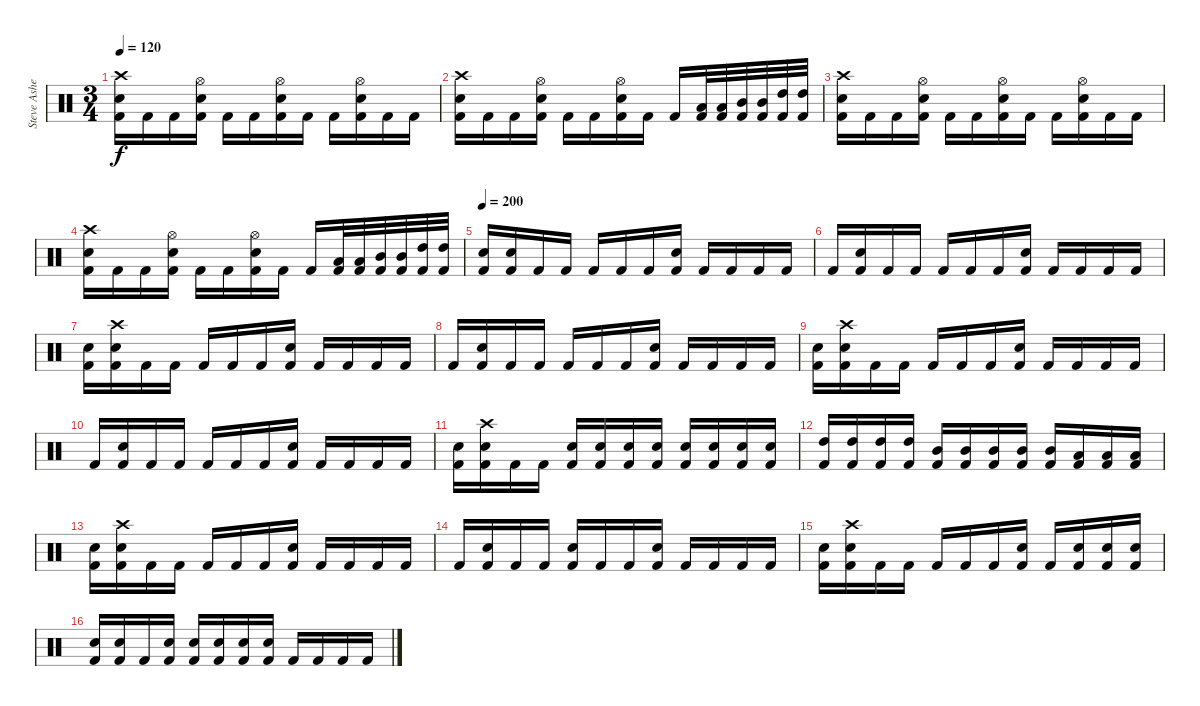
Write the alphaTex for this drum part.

\track ("Steve Asheim" "Steve Ashe") {instrument percussion}
\staff {score}
\articulation defaults
\ts (3 4)
\tempo 120
\clef neutral
\ks c
("Crash high (hit)" "Electric Snare (hit)" "Kick (hit) 2").16{dy f} "Kick (hit) 2".16 "Kick (hit) 2".16 ("Hi-Hat (open)" "Electric Snare (hit)" "Kick (hit) 2").16 "Kick (hit) 2".16 "Kick (hit) 2".16 ("Hi-Hat (open)" "Electric Snare (hit)" "Kick (hit) 2").16 "Kick (hit) 2".16 "Kick (hit) 2".16 ("Hi-Hat (open)" "Electric Snare (hit)" "Kick (hit) 2").16 "Kick (hit) 2".16 "Kick (hit) 2".16 |
("Crash high (hit)" "Electric Snare (hit)" "Kick (hit) 2").16 "Kick (hit) 2".16 "Kick (hit) 2".16 ("Hi-Hat (open)" "Electric Snare (hit)" "Kick (hit) 2").16 "Kick (hit) 2".16 "Kick (hit) 2".16 ("Hi-Hat (open)" "Electric Snare (hit)" "Kick (hit) 2").16 "Kick (hit) 2".16 "Kick (hit) 2".16 ("Low Floor Tom (hit)" "Kick (hit) 2").32 ("Low Tom (hit)" "Kick (hit) 2").32 ("Mid Tom (hit)" "Kick (hit) 2").32 ("Mid Tom (hit)" "Kick (hit) 2").32 ("High Tom (hit)" "Kick (hit) 2").32 ("High Tom (hit)" "Kick (hit) 2").32 |
("Crash high (hit)" "Electric Snare (hit)" "Kick (hit) 2").16 "Kick (hit) 2".16 "Kick (hit) 2".16 ("Hi-Hat (open)" "Electric Snare (hit)" "Kick (hit) 2").16 "Kick (hit) 2".16 "Kick (hit) 2".16 ("Hi-Hat (open)" "Electric Snare (hit)" "Kick (hit) 2").16 "Kick (hit) 2".16 "Kick (hit) 2".16 ("Hi-Hat (open)" "Electric Snare (hit)" "Kick (hit) 2").16 "Kick (hit) 2".16 "Kick (hit) 2".16 |
("Crash high (hit)" "Electric Snare (hit)" "Kick (hit) 2").16 "Kick (hit) 2".16 "Kick (hit) 2".16 ("Hi-Hat (open)" "Electric Snare (hit)" "Kick (hit) 2").16 "Kick (hit) 2".16 "Kick (hit) 2".16 ("Hi-Hat (open)" "Electric Snare (hit)" "Kick (hit) 2").16 "Kick (hit) 2".16 "Kick (hit) 2".16 ("Low Floor Tom (hit)" "Kick (hit) 2").32 ("Low Tom (hit)" "Kick (hit) 2").32 ("Mid Tom (hit)" "Kick (hit) 2").32 ("Mid Tom (hit)" "Kick (hit) 2").32 ("High Tom (hit)" "Kick (hit) 2").32 ("High Tom (hit)" "Kick (hit) 2").32 |
\tempo 200
("Electric Snare (hit)" "Kick (hit) 2").16 ("Electric Snare (hit)" "Kick (hit) 2").16 "Kick (hit) 2".16 "Kick (hit) 2".16 "Kick (hit) 2".16 "Kick (hit) 2".16 "Kick (hit) 2".16 ("Electric Snare (hit)" "Kick (hit) 2").16 "Kick (hit) 2".16 "Kick (hit) 2".16 "Kick (hit) 2".16 "Kick (hit) 2".16 |
"Kick (hit) 2".16 ("Electric Snare (hit)" "Kick (hit) 2").16 "Kick (hit) 2".16 "Kick (hit) 2".16 "Kick (hit) 2".16 "Kick (hit) 2".16 "Kick (hit) 2".16 ("Electric Snare (hit)" "Kick (hit) 2").16 "Kick (hit) 2".16 "Kick (hit) 2".16 "Kick (hit) 2".16 "Kick (hit) 2".16 |
("Electric Snare (hit)" "Kick (hit) 2").16 ("Crash high (hit)" "Electric Snare (hit)" "Kick (hit) 2").16 "Kick (hit) 2".16 "Kick (hit) 2".16 "Kick (hit) 2".16 "Kick (hit) 2".16 "Kick (hit) 2".16 ("Electric Snare (hit)" "Kick (hit) 2").16 "Kick (hit) 2".16 "Kick (hit) 2".16 "Kick (hit) 2".16 "Kick (hit) 2".16 |
"Kick (hit) 2".16 ("Electric Snare (hit)" "Kick (hit) 2").16 "Kick (hit) 2".16 "Kick (hit) 2".16 "Kick (hit) 2".16 "Kick (hit) 2".16 "Kick (hit) 2".16 ("Electric Snare (hit)" "Kick (hit) 2").16 "Kick (hit) 2".16 "Kick (hit) 2".16 "Kick (hit) 2".16 "Kick (hit) 2".16 |
("Electric Snare (hit)" "Kick (hit) 2").16 ("Crash high (hit)" "Electric Snare (hit)" "Kick (hit) 2").16 "Kick (hit) 2".16 "Kick (hit) 2".16 "Kick (hit) 2".16 "Kick (hit) 2".16 "Kick (hit) 2".16 ("Electric Snare (hit)" "Kick (hit) 2").16 "Kick (hit) 2".16 "Kick (hit) 2".16 "Kick (hit) 2".16 "Kick (hit) 2".16 |
"Kick (hit) 2".16 ("Electric Snare (hit)" "Kick (hit) 2").16 "Kick (hit) 2".16 "Kick (hit) 2".16 "Kick (hit) 2".16 "Kick (hit) 2".16 "Kick (hit) 2".16 ("Electric Snare (hit)" "Kick (hit) 2").16 "Kick (hit) 2".16 "Kick (hit) 2".16 "Kick (hit) 2".16 "Kick (hit) 2".16 |
("Electric Snare (hit)" "Kick (hit) 2").16 ("Crash high (hit)" "Electric Snare (hit)" "Kick (hit) 2").16 "Kick (hit) 2".16 "Kick (hit) 2".16 ("Electric Snare (hit)" "Kick (hit) 2").16 ("Snare (hit) 2" "Kick (hit) 2").16 ("Snare (hit) 2" "Kick (hit) 2").16 ("Snare (hit) 2" "Kick (hit) 2").16 ("Snare (hit) 2" "Kick (hit) 2").16 ("Snare (hit) 2" "Kick (hit) 2").16 ("Snare (hit) 2" "Kick (hit) 2").16 ("Snare (hit) 2" "Kick (hit) 2").16 |
("High Tom (hit)" "Kick (hit) 2").16 ("High Tom (hit)" "Kick (hit) 2").16 ("High Tom (hit)" "Kick (hit) 2").16 ("High Tom (hit)" "Kick (hit) 2").16 ("Mid Tom (hit)" "Kick (hit) 2").16 ("Mid Tom (hit)" "Kick (hit) 2").16 ("Mid Tom (hit)" "Kick (hit) 2").16 ("Mid Tom (hit)" "Kick (hit) 2").16 ("Mid Tom (hit)" "Kick (hit) 2").16 ("Low Tom (hit)" "Kick (hit) 2").16 ("Low Tom (hit)" "Kick (hit) 2").16 ("Low Tom (hit)" "Kick (hit) 2").16 |
("Electric Snare (hit)" "Kick (hit) 2").16 ("Crash high (hit)" "Electric Snare (hit)" "Kick (hit) 2").16 "Kick (hit) 2".16 "Kick (hit) 2".16 "Kick (hit) 2".16 "Kick (hit) 2".16 "Kick (hit) 2".16 ("Electric Snare (hit)" "Kick (hit) 2").16 "Kick (hit) 2".16 "Kick (hit) 2".16 "Kick (hit) 2".16 "Kick (hit) 2".16 |
"Kick (hit) 2".16 ("Electric Snare (hit)" "Kick (hit) 2").16 "Kick (hit) 2".16 "Kick (hit) 2".16 ("Electric Snare (hit)" "Kick (hit) 2").16 "Kick (hit) 2".16 "Kick (hit) 2".16 ("Electric Snare (hit)" "Kick (hit) 2").16 "Kick (hit) 2".16 "Kick (hit) 2".16 "Kick (hit) 2".16 "Kick (hit) 2".16 |
("Electric Snare (hit)" "Kick (hit) 2").16 ("Crash high (hit)" "Electric Snare (hit)" "Kick (hit) 2").16 "Kick (hit) 2".16 "Kick (hit) 2".16 "Kick (hit) 2".16 "Kick (hit) 2".16 "Kick (hit) 2".16 ("Electric Snare (hit)" "Kick (hit) 2").16 "Kick (hit) 2".16 ("Snare (hit) 2" "Kick (hit) 2").16 ("Snare (hit) 2" "Kick (hit) 2").16 ("Snare (hit) 2" "Kick (hit) 2").16 |
("Snare (hit) 2" "Kick (hit) 2").16 ("Electric Snare (hit)" "Kick (hit) 2").16 "Kick (hit) 2".16 ("Snare (hit) 2" "Kick (hit) 2").16 ("Snare (hit) 2" "Kick (hit) 2").16 ("Snare (hit) 2" "Kick (hit) 2").16 ("Snare (hit) 2" "Kick (hit) 2").16 ("Electric Snare (hit)" "Kick (hit) 2").16 "Kick (hit) 2".16 "Kick (hit) 2".16 "Kick (hit) 2".16 "Kick (hit) 2".16
